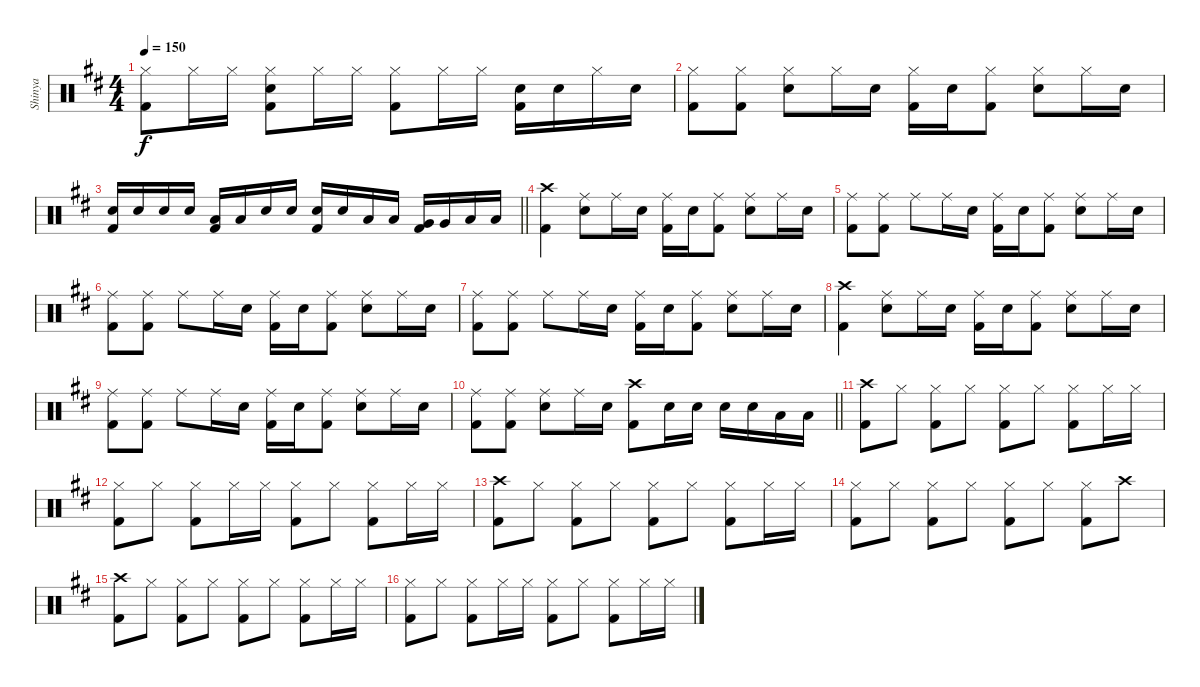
\track ("Shinya" "Shinya") {instrument percussion}
\staff {score}
\articulation defaults
\ts (4 4)
\tempo 150
\clef neutral
\ks d
("Hi-Hat (closed)" "Kick (hit) 2").8{dy f} "Hi-Hat (closed)".16 "Hi-Hat (closed)".16 ("Hi-Hat (closed)" "Electric Snare (hit)" "Kick (hit) 2").8 "Hi-Hat (closed)".16 "Hi-Hat (closed)".16 ("Hi-Hat (closed)" "Kick (hit) 2").8 "Hi-Hat (closed)".16 "Hi-Hat (closed)".16 ("Electric Snare (hit)" "Kick (hit) 2").16 "Electric Snare (hit)".16 "Hi-Hat (closed)".16 "Electric Snare (hit)".16 |
("Hi-Hat (closed)" "Kick (hit) 2").8 ("Hi-Hat (closed)" "Kick (hit) 2").8 ("Hi-Hat (closed)" "Electric Snare (hit)").8 "Hi-Hat (closed)".16 "Electric Snare (hit)".16 ("Hi-Hat (closed)" "Kick (hit) 2").16 "Electric Snare (hit)".16 ("Hi-Hat (closed)" "Kick (hit) 2").8 ("Hi-Hat (closed)" "Electric Snare (hit)").8 "Hi-Hat (closed)".16 "Electric Snare (hit)".16 |
\barLineRight lightlight
("Electric Snare (hit)" "Kick (hit) 2").16 "Electric Snare (hit)".16 "Electric Snare (hit)".16 "Electric Snare (hit)".16 ("Low Tom (hit)" "Kick (hit) 2").16 "Low Tom (hit)".16 "Electric Snare (hit)".16 "Electric Snare (hit)".16 ("Electric Snare (hit)" "Kick (hit) 2").16 "Electric Snare (hit)".16 "Low Tom (hit)".16 "Low Tom (hit)".16 ("Very Low Tom (hit)" "Kick (hit) 2").16 "Very Low Tom (hit)".16 "Low Floor Tom (hit)".16 "Low Floor Tom (hit)".16 |
("Crash high (hit)" "Kick (hit) 2").4 ("Ride (middle)" "Electric Snare (hit)").8 "Ride (middle)".16 "Electric Snare (hit)".16 ("Ride (middle)" "Kick (hit) 2").16 "Electric Snare (hit)".16 ("Ride (middle)" "Kick (hit) 2").8 ("Ride (middle)" "Electric Snare (hit)").8 "Ride (middle)".16 "Electric Snare (hit)".16 |
("Ride (middle)" "Kick (hit) 2").8 ("Ride (middle)" "Kick (hit) 2").8 "Ride (middle)".8 "Ride (middle)".16 "Electric Snare (hit)".16 ("Ride (middle)" "Kick (hit) 2").16 "Electric Snare (hit)".16 ("Ride (middle)" "Kick (hit) 2").8 ("Ride (middle)" "Electric Snare (hit)").8 "Ride (middle)".16 "Electric Snare (hit)".16 |
("Ride (middle)" "Kick (hit) 2").8 ("Ride (middle)" "Kick (hit) 2").8 "Ride (middle)".8 "Ride (middle)".16 "Electric Snare (hit)".16 ("Ride (middle)" "Kick (hit) 2").16 "Electric Snare (hit)".16 ("Ride (middle)" "Kick (hit) 2").8 ("Ride (middle)" "Electric Snare (hit)").8 "Ride (middle)".16 "Electric Snare (hit)".16 |
("Ride (middle)" "Kick (hit) 2").8 ("Ride (middle)" "Kick (hit) 2").8 "Ride (middle)".8 "Ride (middle)".16 "Electric Snare (hit)".16 ("Ride (middle)" "Kick (hit) 2").16 "Electric Snare (hit)".16 ("Ride (middle)" "Kick (hit) 2").8 ("Ride (middle)" "Electric Snare (hit)").8 "Ride (middle)".16 "Electric Snare (hit)".16 |
("Crash high (hit)" "Kick (hit) 2").4 ("Ride (middle)" "Electric Snare (hit)").8 "Ride (middle)".16 "Electric Snare (hit)".16 ("Ride (middle)" "Kick (hit) 2").16 "Electric Snare (hit)".16 ("Ride (middle)" "Kick (hit) 2").8 ("Ride (middle)" "Electric Snare (hit)").8 "Ride (middle)".16 "Electric Snare (hit)".16 |
("Ride (middle)" "Kick (hit) 2").8 ("Ride (middle)" "Kick (hit) 2").8 "Ride (middle)".8 "Ride (middle)".16 "Electric Snare (hit)".16 ("Ride (middle)" "Kick (hit) 2").16 "Electric Snare (hit)".16 ("Ride (middle)" "Kick (hit) 2").8 ("Ride (middle)" "Electric Snare (hit)").8 "Ride (middle)".16 "Electric Snare (hit)".16 |
\barLineRight lightlight
("Ride (middle)" "Kick (hit) 2").8 ("Ride (middle)" "Kick (hit) 2").8 ("Ride (middle)" "Electric Snare (hit)").8 "Ride (middle)".16 "Electric Snare (hit)".16 ("Crash high (hit)" "Kick (hit) 2").8 "Electric Snare (hit)".16 "Electric Snare (hit)".16 "Electric Snare (hit)".16 "Electric Snare (hit)".16 "Low Tom (hit)".16 "Low Tom (hit)".16 |
("Crash high (hit)" "Kick (hit) 2").8 "Hi-Hat (closed)".8 ("Hi-Hat (closed)" "Kick (hit) 2").8 "Hi-Hat (closed)".8 ("Hi-Hat (closed)" "Kick (hit) 2").8 "Hi-Hat (closed)".8 ("Hi-Hat (closed)" "Kick (hit) 2").8 "Hi-Hat (closed)".16 "Hi-Hat (closed)".16 |
("Hi-Hat (closed)" "Kick (hit) 2").8 "Hi-Hat (closed)".8 ("Hi-Hat (closed)" "Kick (hit) 2").8 "Hi-Hat (closed)".16 "Hi-Hat (closed)".16 ("Hi-Hat (closed)" "Kick (hit) 2").8 "Hi-Hat (closed)".8 ("Hi-Hat (closed)" "Kick (hit) 2").8 "Hi-Hat (closed)".16 "Hi-Hat (closed)".16 |
("Crash high (hit)" "Kick (hit) 2").8 "Hi-Hat (closed)".8 ("Hi-Hat (closed)" "Kick (hit) 2").8 "Hi-Hat (closed)".8 ("Hi-Hat (closed)" "Kick (hit) 2").8 "Hi-Hat (closed)".8 ("Hi-Hat (closed)" "Kick (hit) 2").8 "Hi-Hat (closed)".16 "Hi-Hat (closed)".16 |
("Hi-Hat (closed)" "Kick (hit) 2").8 "Hi-Hat (closed)".8 ("Hi-Hat (closed)" "Kick (hit) 2").8 "Hi-Hat (closed)".8 ("Hi-Hat (closed)" "Kick (hit) 2").8 "Hi-Hat (closed)".8 ("Hi-Hat (closed)" "Kick (hit) 2").8 "Crash high (hit)".8 |
("Crash high (hit)" "Kick (hit) 2").8 "Hi-Hat (closed)".8 ("Hi-Hat (closed)" "Kick (hit) 2").8 "Hi-Hat (closed)".8 ("Hi-Hat (closed)" "Kick (hit) 2").8 "Hi-Hat (closed)".8 ("Hi-Hat (closed)" "Kick (hit) 2").8 "Hi-Hat (closed)".16 "Hi-Hat (closed)".16 |
("Hi-Hat (closed)" "Kick (hit) 2").8 "Hi-Hat (closed)".8 ("Hi-Hat (closed)" "Kick (hit) 2").8 "Hi-Hat (closed)".16 "Hi-Hat (closed)".16 ("Hi-Hat (closed)" "Kick (hit) 2").8 "Hi-Hat (closed)".8 ("Hi-Hat (closed)" "Kick (hit) 2").8 "Hi-Hat (closed)".16 "Hi-Hat (closed)".16
